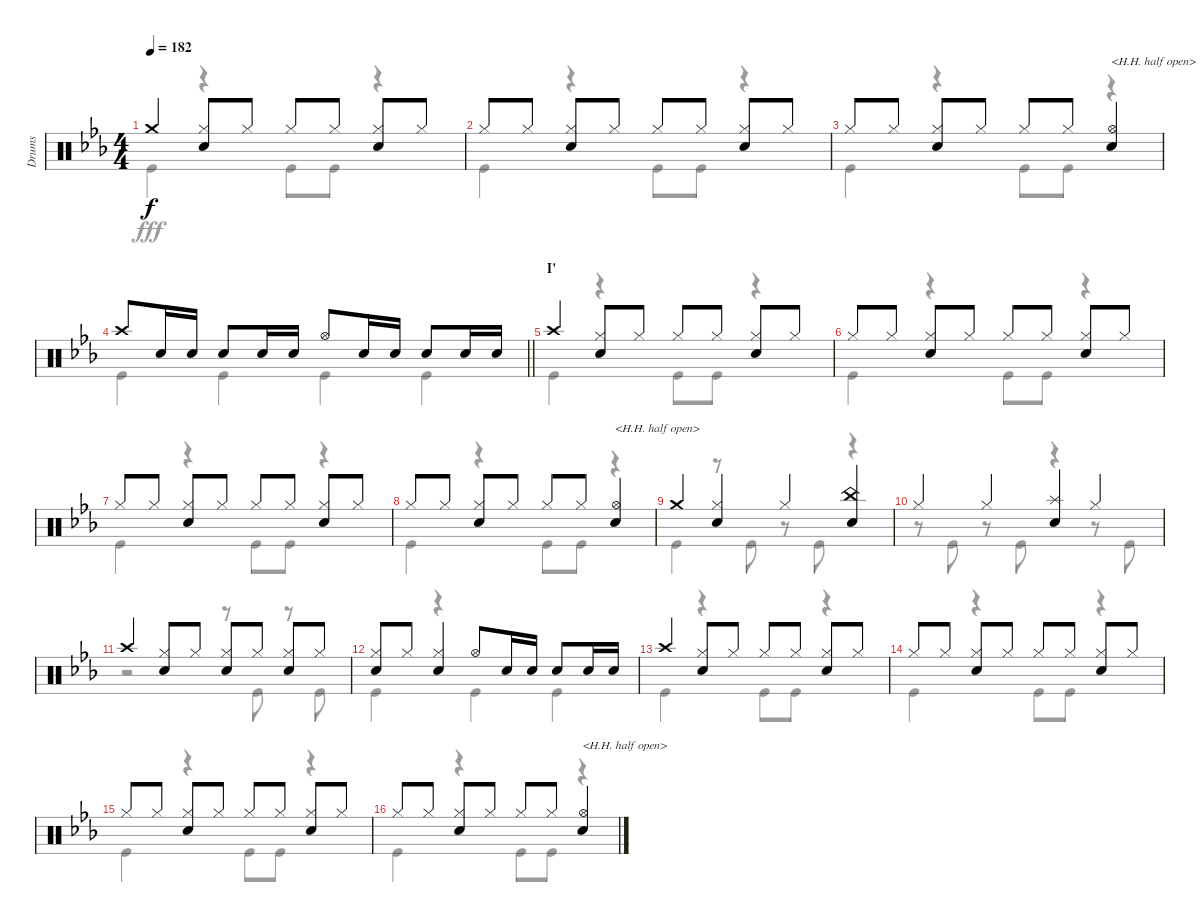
\track ("Drums" "Drums") {instrument percussion}
\staff {score}
\articulation defaults
\voice
\ts (4 4)
\tempo 182
\clef neutral
\ks eb "Crash medium (hit)".4{dy f}
("Hi-Hat (closed)" "Snare (hit) 2").8 "Hi-Hat (closed)".8 "Hi-Hat (closed)".8 "Hi-Hat (closed)".8 ("Hi-Hat (closed)" "Snare (hit) 2").8 "Hi-Hat (closed)".8 |
"Hi-Hat (closed)".8 "Hi-Hat (closed)".8 ("Hi-Hat (closed)" "Snare (hit) 2").8 "Hi-Hat (closed)".8 "Hi-Hat (closed)".8 "Hi-Hat (closed)".8 ("Hi-Hat (closed)" "Snare (hit) 2").8 "Hi-Hat (closed)".8 |
"Hi-Hat (closed)".8 "Hi-Hat (closed)".8 ("Hi-Hat (closed)" "Snare (hit) 2").8 "Hi-Hat (closed)".8 "Hi-Hat (closed)".8 "Hi-Hat (closed)".8 ("Hi-Hat (open)" "Snare (hit) 2").4{txt "<H.H. half open>"} |
\barLineRight lightlight "Crash high (hit)".8 "Snare (hit) 2".16 "Snare (hit) 2".16 "Snare (hit) 2".8 "Snare (hit) 2".16 "Snare (hit) 2".16 "Hi-Hat (open)".8 "Snare (hit) 2".16 "Snare (hit) 2".16 "Snare (hit) 2".8 "Snare (hit) 2".16 "Snare (hit) 2".16
|
\section ("" "I'")
"Crash high (hit)".4 ("Hi-Hat (closed)" "Snare (hit) 2").8 "Hi-Hat (closed)".8 "Hi-Hat (closed)".8 "Hi-Hat (closed)".8 ("Hi-Hat (closed)" "Snare (hit) 2").8 "Hi-Hat (closed)".8 |
"Hi-Hat (closed)".8 "Hi-Hat (closed)".8 ("Hi-Hat (closed)" "Snare (hit) 2").8 "Hi-Hat (closed)".8 "Hi-Hat (closed)".8 "Hi-Hat (closed)".8 ("Hi-Hat (closed)" "Snare (hit) 2").8 "Hi-Hat (closed)".8 |
"Hi-Hat (closed)".8 "Hi-Hat (closed)".8 ("Hi-Hat (closed)" "Snare (hit) 2").8 "Hi-Hat (closed)".8 "Hi-Hat (closed)".8 "Hi-Hat (closed)".8 ("Hi-Hat (closed)" "Snare (hit) 2").8 "Hi-Hat (closed)".8 |
"Hi-Hat (closed)".8 "Hi-Hat (closed)".8 ("Hi-Hat (closed)" "Snare (hit) 2").8 "Hi-Hat (closed)".8 "Hi-Hat (closed)".8 "Hi-Hat (closed)".8 ("Hi-Hat (open)" "Snare (hit) 2").4{txt "<H.H. half open>"} |
"Crash medium (hit)".4 ("Hi-Hat (closed)" "Snare (hit) 2").4 "Hi-Hat (closed)".4 ("China (hit)" "Snare (hit) 2").4 |
"Hi-Hat (closed)".4 "Hi-Hat (closed)".4 ("Splash (hit)" "Snare (hit) 2").4 "Hi-Hat (closed)".4 |
"Crash high (hit)".4 ("Hi-Hat (closed)" "Snare (hit) 2").8 "Hi-Hat (closed)".8 ("Hi-Hat (closed)" "Snare (hit) 2").8 "Hi-Hat (closed)".8 ("Hi-Hat (closed)" "Snare (hit) 2").8 "Hi-Hat (closed)".8 |
("Hi-Hat (closed)" "Snare (hit) 2").8 "Hi-Hat (closed)".8 ("Hi-Hat (closed)" "Snare (hit) 2").4 "Hi-Hat (open)".8 "Snare (hit) 2".16 "Snare (hit) 2".16 "Snare (hit) 2".8 "Snare (hit) 2".16 "Snare (hit) 2".16 |
"Crash high (hit)".4 ("Hi-Hat (closed)" "Snare (hit) 2").8 "Hi-Hat (closed)".8 "Hi-Hat (closed)".8 "Hi-Hat (closed)".8 ("Hi-Hat (closed)" "Snare (hit) 2").8 "Hi-Hat (closed)".8 |
"Hi-Hat (closed)".8 "Hi-Hat (closed)".8 ("Hi-Hat (closed)" "Snare (hit) 2").8 "Hi-Hat (closed)".8 "Hi-Hat (closed)".8 "Hi-Hat (closed)".8 ("Hi-Hat (closed)" "Snare (hit) 2").8 "Hi-Hat (closed)".8 |
"Hi-Hat (closed)".8 "Hi-Hat (closed)".8 ("Hi-Hat (closed)" "Snare (hit) 2").8 "Hi-Hat (closed)".8 "Hi-Hat (closed)".8 "Hi-Hat (closed)".8 ("Hi-Hat (closed)" "Snare (hit) 2").8 "Hi-Hat (closed)".8 |
"Hi-Hat (closed)".8 "Hi-Hat (closed)".8 ("Hi-Hat (closed)" "Snare (hit) 2").8 "Hi-Hat (closed)".8 "Hi-Hat (closed)".8 "Hi-Hat (closed)".8 ("Hi-Hat (open)" "Snare (hit) 2").4{txt "<H.H. half open>"}
\voice
\clef neutral
\ottava regular
\simile none
\ks eb "Kick (hit)".4{dy fff}
r.4 "Kick (hit)".8 "Kick (hit)".8 r.4 |
"Kick (hit)".4 r.4 "Kick (hit)".8 "Kick (hit)".8 r.4 |
"Kick (hit)".4 r.4 "Kick (hit)".8 "Kick (hit)".8 r.4 |
\barLineRight lightlight "Kick (hit)".4 "Kick (hit)".4 "Kick (hit)".4 "Kick (hit)".4
|
"Kick (hit)".4 r.4 "Kick (hit)".8 "Kick (hit)".8 r.4 |
"Kick (hit)".4 r.4 "Kick (hit)".8 "Kick (hit)".8 r.4 |
"Kick (hit)".4 r.4 "Kick (hit)".8 "Kick (hit)".8 r.4 |
"Kick (hit)".4 r.4 "Kick (hit)".8 "Kick (hit)".8 r.4 |
"Kick (hit)".4 r.8 "Kick (hit)".8 r.8 "Kick (hit)".8 r.4 |
r.8 "Kick (hit)".8 r.8 "Kick (hit)".8 r.4 r.8 "Kick (hit)".8 |
r.2 r.8 "Kick (hit)".8 r.8 "Kick (hit)".8 |
"Kick (hit)".4 r.4 "Kick (hit)".4 "Kick (hit)".4 |
"Kick (hit)".4 r.4 "Kick (hit)".8 "Kick (hit)".8 r.4 |
"Kick (hit)".4 r.4 "Kick (hit)".8 "Kick (hit)".8 r.4 |
"Kick (hit)".4 r.4 "Kick (hit)".8 "Kick (hit)".8 r.4 |
"Kick (hit)".4 r.4 "Kick (hit)".8 "Kick (hit)".8 r.4
